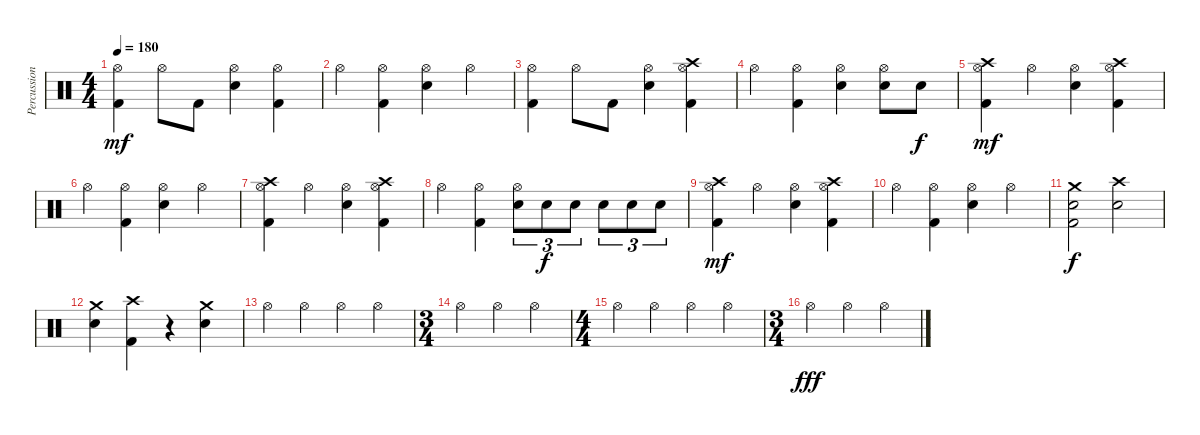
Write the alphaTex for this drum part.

\track ("Percussion" "Percussion") {instrument percussion}
\staff {score}
\articulation defaults
\ts (4 4)
\tempo 180
\clef neutral
\ks c
("Hi-Hat (open)" "Kick (hit) 2").4{dy mf} "Hi-Hat (open)".8 "Kick (hit) 2".8 ("Hi-Hat (open)" "Electric Snare (hit)").4 ("Hi-Hat (open)" "Kick (hit) 2").4 |
"Hi-Hat (open)".4 ("Hi-Hat (open)" "Kick (hit) 2").4 ("Hi-Hat (open)" "Electric Snare (hit)").4 "Hi-Hat (open)".4 |
("Hi-Hat (open)" "Kick (hit) 2").4 "Hi-Hat (open)".8 "Kick (hit) 2".8 ("Hi-Hat (open)" "Electric Snare (hit)").4 ("Crash high (hit)" "Hi-Hat (open)" "Kick (hit) 2").4 |
"Hi-Hat (open)".4 ("Hi-Hat (open)" "Kick (hit) 2").4 ("Hi-Hat (open)" "Electric Snare (hit)").4 ("Hi-Hat (open)" "Electric Snare (hit)").8 "Electric Snare (hit)".8{dy f} |
("Crash high (hit)" "Hi-Hat (open)" "Kick (hit) 2").4{dy mf} "Hi-Hat (open)".4 ("Hi-Hat (open)" "Electric Snare (hit)").4 ("Crash high (hit)" "Hi-Hat (open)" "Kick (hit) 2").4 |
"Hi-Hat (open)".4 ("Hi-Hat (open)" "Kick (hit) 2").4 ("Hi-Hat (open)" "Electric Snare (hit)").4 "Hi-Hat (open)".4 |
("Crash high (hit)" "Hi-Hat (open)" "Kick (hit) 2").4 "Hi-Hat (open)".4 ("Hi-Hat (open)" "Electric Snare (hit)").4 ("Crash high (hit)" "Hi-Hat (open)" "Kick (hit) 2").4 |
"Hi-Hat (open)".4 ("Hi-Hat (open)" "Kick (hit) 2").4 ("Hi-Hat (open)" "Electric Snare (hit)").8{tu (3 2)} "Electric Snare (hit)".8{tu (3 2) dy f} "Electric Snare (hit)".8{tu (3 2)} "Electric Snare (hit)".8{tu (3 2)} "Electric Snare (hit)".8{tu (3 2)} "Electric Snare (hit)".8{tu (3 2)} |
("Crash high (hit)" "Hi-Hat (open)" "Kick (hit) 2").4{dy mf} "Hi-Hat (open)".4 ("Hi-Hat (open)" "Electric Snare (hit)").4 ("Crash high (hit)" "Hi-Hat (open)" "Kick (hit) 2").4 |
"Hi-Hat (open)".4 ("Hi-Hat (open)" "Kick (hit) 2").4 ("Hi-Hat (open)" "Electric Snare (hit)").4 "Hi-Hat (open)".4 |
("Crash medium (hit)" "Electric Snare (hit)" "Kick (hit) 2").2{dy f} ("Crash high (hit)" "Electric Snare (hit)").2 |
("Crash medium (hit)" "Electric Snare (hit)").4 ("Crash high (hit)" "Kick (hit) 2").4 r.4 ("Crash medium (hit)" "Electric Snare (hit)").4 |
"Hi-Hat (open)".4 "Hi-Hat (open)".4 "Hi-Hat (open)".4 "Hi-Hat (open)".4 |
\ts (3 4)
"Hi-Hat (open)".4 "Hi-Hat (open)".4 "Hi-Hat (open)".4 |
\ts (4 4)
"Hi-Hat (open)".4 "Hi-Hat (open)".4 "Hi-Hat (open)".4 "Hi-Hat (open)".4 |
\ts (3 4)
"Hi-Hat (open)".4{dy fff} "Hi-Hat (open)".4 "Hi-Hat (open)".4
